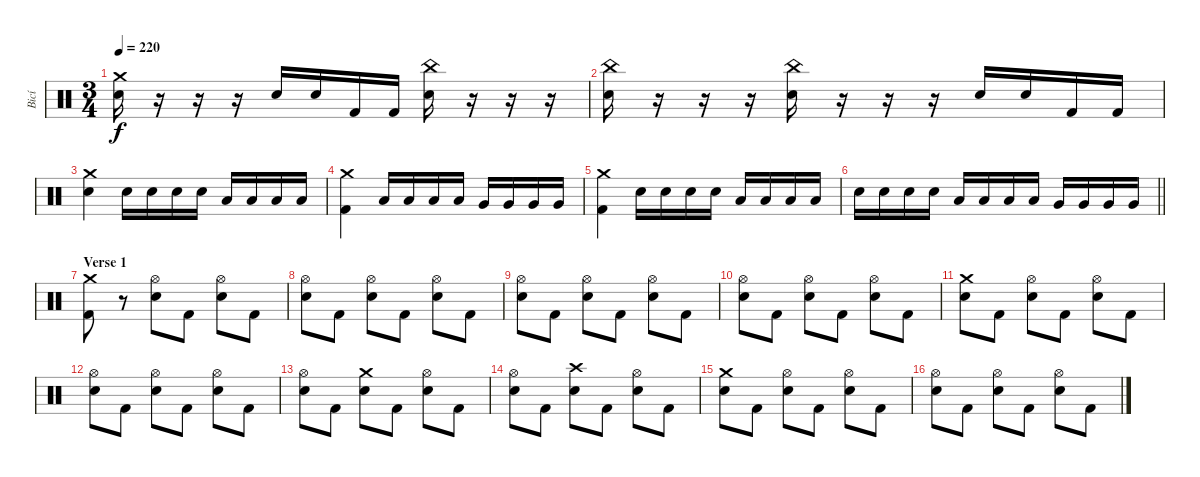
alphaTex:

\track ("Bicí" "Bicí") {instrument percussion}
\staff {score}
\articulation defaults
\ts (3 4)
\tempo 220
\clef neutral
\ks c
("Crash medium (hit)" "Electric Snare (hit)").16{dy f} r.16 r.16 r.16 "Electric Snare (hit)".16 "Electric Snare (hit)".16 "Kick (hit) 2".16 "Kick (hit) 2".16 ("China (hit)" "Electric Snare (hit)").16 r.16 r.16 r.16 |
("China (hit)" "Electric Snare (hit)").16 r.16 r.16 r.16 ("China (hit)" "Electric Snare (hit)").16 r.16 r.16 r.16 "Electric Snare (hit)".16 "Electric Snare (hit)".16 "Kick (hit) 2".16 "Kick (hit) 2".16 |
("Crash medium (hit)" "Electric Snare (hit)").4 "Electric Snare (hit)".16 "Electric Snare (hit)".16 "Electric Snare (hit)".16 "Electric Snare (hit)".16 "Low Tom (hit)".16 "Low Tom (hit)".16 "Low Tom (hit)".16 "Low Tom (hit)".16 |
("Crash medium (hit)" "Kick (hit) 2").4 "Low Tom (hit)".16 "Low Tom (hit)".16 "Low Tom (hit)".16 "Low Tom (hit)".16 "Very Low Tom (hit)".16 "Very Low Tom (hit)".16 "Very Low Tom (hit)".16 "Very Low Tom (hit)".16 |
("Crash medium (hit)" "Kick (hit) 2").4 "Electric Snare (hit)".16 "Electric Snare (hit)".16 "Electric Snare (hit)".16 "Electric Snare (hit)".16 "Low Tom (hit)".16 "Low Tom (hit)".16 "Low Tom (hit)".16 "Low Tom (hit)".16 |
\barLineRight lightlight "Electric Snare (hit)".16 "Electric Snare (hit)".16 "Electric Snare (hit)".16 "Electric Snare (hit)".16 "Low Tom (hit)".16 "Low Tom (hit)".16 "Low Tom (hit)".16 "Low Tom (hit)".16 "Very Low Tom (hit)".16 "Very Low Tom (hit)".16 "Very Low Tom (hit)".16 "Very Low Tom (hit)".16
|
\section ("" "Verse 1")
("Crash medium (hit)" "Kick (hit) 2").8 r.8 ("Hi-Hat (open)" "Electric Snare (hit)").8 "Kick (hit) 2".8 ("Hi-Hat (open)" "Electric Snare (hit)").8 "Kick (hit) 2".8 |
("Hi-Hat (open)" "Electric Snare (hit)").8 "Kick (hit) 2".8 ("Hi-Hat (open)" "Electric Snare (hit)").8 "Kick (hit) 2".8 ("Hi-Hat (open)" "Electric Snare (hit)").8 "Kick (hit) 2".8 |
("Hi-Hat (open)" "Electric Snare (hit)").8 "Kick (hit) 2".8 ("Hi-Hat (open)" "Electric Snare (hit)").8 "Kick (hit) 2".8 ("Hi-Hat (open)" "Electric Snare (hit)").8 "Kick (hit) 2".8 |
("Hi-Hat (open)" "Electric Snare (hit)").8 "Kick (hit) 2".8 ("Hi-Hat (open)" "Electric Snare (hit)").8 "Kick (hit) 2".8 ("Hi-Hat (open)" "Electric Snare (hit)").8 "Kick (hit) 2".8 |
("Crash medium (hit)" "Electric Snare (hit)").8 "Kick (hit) 2".8 ("Hi-Hat (open)" "Electric Snare (hit)").8 "Kick (hit) 2".8 ("Hi-Hat (open)" "Electric Snare (hit)").8 "Kick (hit) 2".8 |
("Hi-Hat (open)" "Electric Snare (hit)").8 "Kick (hit) 2".8 ("Hi-Hat (open)" "Electric Snare (hit)").8 "Kick (hit) 2".8 ("Hi-Hat (open)" "Electric Snare (hit)").8 "Kick (hit) 2".8 |
("Hi-Hat (open)" "Electric Snare (hit)").8 "Kick (hit) 2".8 ("Crash medium (hit)" "Electric Snare (hit)").8 "Kick (hit) 2".8 ("Hi-Hat (open)" "Electric Snare (hit)").8 "Kick (hit) 2".8 |
("Hi-Hat (open)" "Electric Snare (hit)").8 "Kick (hit) 2".8 ("Crash high (hit)" "Electric Snare (hit)").8 "Kick (hit) 2".8 ("Hi-Hat (open)" "Electric Snare (hit)").8 "Kick (hit) 2".8 |
("Crash medium (hit)" "Electric Snare (hit)").8 "Kick (hit) 2".8 ("Hi-Hat (open)" "Electric Snare (hit)").8 "Kick (hit) 2".8 ("Hi-Hat (open)" "Electric Snare (hit)").8 "Kick (hit) 2".8 |
("Hi-Hat (open)" "Electric Snare (hit)").8 "Kick (hit) 2".8 ("Hi-Hat (open)" "Electric Snare (hit)").8 "Kick (hit) 2".8 ("Hi-Hat (open)" "Electric Snare (hit)").8 "Kick (hit) 2".8
